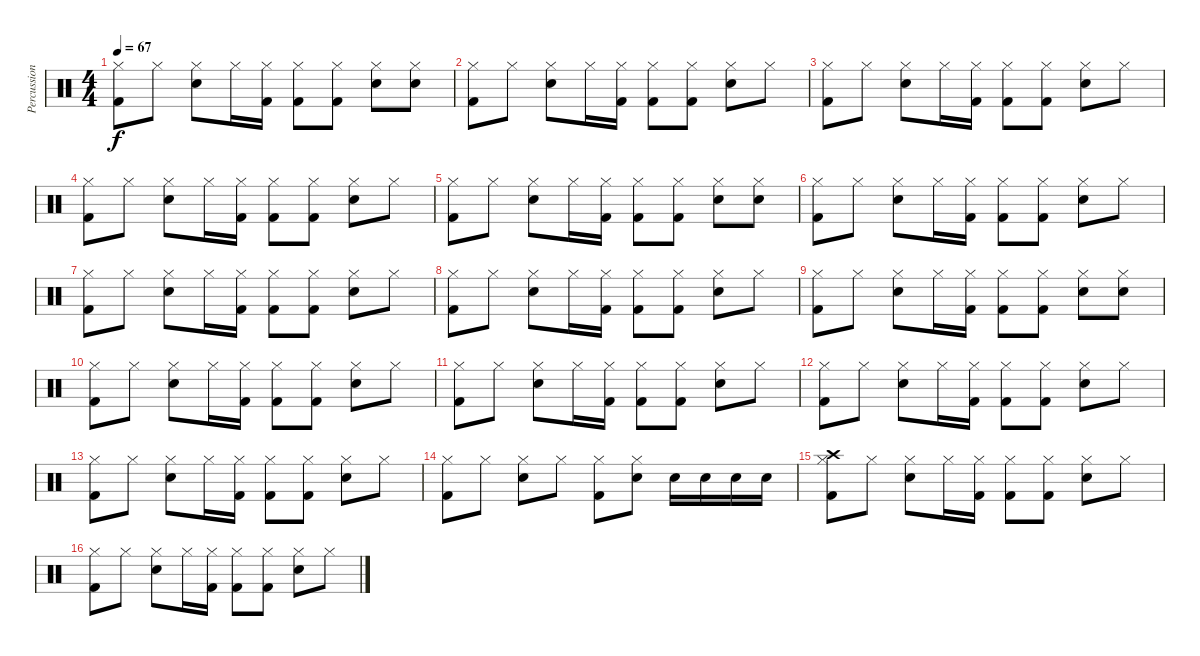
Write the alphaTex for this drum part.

\track ("Percussion" "Percussion") {instrument percussion}
\staff {score}
\articulation defaults
\ts (4 4)
\tempo 67
\clef neutral
\ks c
("Hi-Hat (closed)" "Kick (hit) 2").8{dy f} "Hi-Hat (closed)".8 ("Hi-Hat (closed)" "Hand Clap (hit)").8 "Hi-Hat (closed)".16 ("Hi-Hat (closed)" "Kick (hit) 2").16 ("Hi-Hat (closed)" "Kick (hit) 2").8 ("Hi-Hat (closed)" "Kick (hit) 2").8 ("Hi-Hat (closed)" "Hand Clap (hit)").8 ("Hi-Hat (closed)" "Hand Clap (hit)").8 |
("Hi-Hat (closed)" "Kick (hit) 2").8 "Hi-Hat (closed)".8 ("Hi-Hat (closed)" "Hand Clap (hit)").8 "Hi-Hat (closed)".16 ("Hi-Hat (closed)" "Kick (hit) 2").16 ("Hi-Hat (closed)" "Kick (hit) 2").8 ("Hi-Hat (closed)" "Kick (hit) 2").8 ("Hi-Hat (closed)" "Hand Clap (hit)").8 "Hi-Hat (closed)".8 |
("Hi-Hat (closed)" "Kick (hit) 2").8 "Hi-Hat (closed)".8 ("Hi-Hat (closed)" "Hand Clap (hit)").8 "Hi-Hat (closed)".16 ("Hi-Hat (closed)" "Kick (hit) 2").16 ("Hi-Hat (closed)" "Kick (hit) 2").8 ("Hi-Hat (closed)" "Kick (hit) 2").8 ("Hi-Hat (closed)" "Hand Clap (hit)").8 "Hi-Hat (closed)".8 |
("Hi-Hat (closed)" "Kick (hit) 2").8 "Hi-Hat (closed)".8 ("Hi-Hat (closed)" "Hand Clap (hit)").8 "Hi-Hat (closed)".16 ("Hi-Hat (closed)" "Kick (hit) 2").16 ("Hi-Hat (closed)" "Kick (hit) 2").8 ("Hi-Hat (closed)" "Kick (hit) 2").8 ("Hi-Hat (closed)" "Hand Clap (hit)").8 "Hi-Hat (closed)".8 |
("Hi-Hat (closed)" "Kick (hit) 2").8 "Hi-Hat (closed)".8 ("Hi-Hat (closed)" "Hand Clap (hit)").8 "Hi-Hat (closed)".16 ("Hi-Hat (closed)" "Kick (hit) 2").16 ("Hi-Hat (closed)" "Kick (hit) 2").8 ("Hi-Hat (closed)" "Kick (hit) 2").8 ("Hi-Hat (closed)" "Hand Clap (hit)").8 ("Hi-Hat (closed)" "Hand Clap (hit)").8 |
("Hi-Hat (closed)" "Kick (hit) 2").8 "Hi-Hat (closed)".8 ("Hi-Hat (closed)" "Hand Clap (hit)").8 "Hi-Hat (closed)".16 ("Hi-Hat (closed)" "Kick (hit) 2").16 ("Hi-Hat (closed)" "Kick (hit) 2").8 ("Hi-Hat (closed)" "Kick (hit) 2").8 ("Hi-Hat (closed)" "Hand Clap (hit)").8 "Hi-Hat (closed)".8 |
("Hi-Hat (closed)" "Kick (hit) 2").8 "Hi-Hat (closed)".8 ("Hi-Hat (closed)" "Hand Clap (hit)").8 "Hi-Hat (closed)".16 ("Hi-Hat (closed)" "Kick (hit) 2").16 ("Hi-Hat (closed)" "Kick (hit) 2").8 ("Hi-Hat (closed)" "Kick (hit) 2").8 ("Hi-Hat (closed)" "Hand Clap (hit)").8 "Hi-Hat (closed)".8 |
("Hi-Hat (closed)" "Kick (hit) 2").8 "Hi-Hat (closed)".8 ("Hi-Hat (closed)" "Hand Clap (hit)").8 "Hi-Hat (closed)".16 ("Hi-Hat (closed)" "Kick (hit) 2").16 ("Hi-Hat (closed)" "Kick (hit) 2").8 ("Hi-Hat (closed)" "Kick (hit) 2").8 ("Hi-Hat (closed)" "Hand Clap (hit)").8 "Hi-Hat (closed)".8 |
("Hi-Hat (closed)" "Kick (hit) 2").8 "Hi-Hat (closed)".8 ("Hi-Hat (closed)" "Hand Clap (hit)").8 "Hi-Hat (closed)".16 ("Hi-Hat (closed)" "Kick (hit) 2").16 ("Hi-Hat (closed)" "Kick (hit) 2").8 ("Hi-Hat (closed)" "Kick (hit) 2").8 ("Hi-Hat (closed)" "Hand Clap (hit)").8 ("Hi-Hat (closed)" "Hand Clap (hit)").8 |
("Hi-Hat (closed)" "Kick (hit) 2").8 "Hi-Hat (closed)".8 ("Hi-Hat (closed)" "Hand Clap (hit)").8 "Hi-Hat (closed)".16 ("Hi-Hat (closed)" "Kick (hit) 2").16 ("Hi-Hat (closed)" "Kick (hit) 2").8 ("Hi-Hat (closed)" "Kick (hit) 2").8 ("Hi-Hat (closed)" "Hand Clap (hit)").8 "Hi-Hat (closed)".8 |
("Hi-Hat (closed)" "Kick (hit) 2").8 "Hi-Hat (closed)".8 ("Hi-Hat (closed)" "Hand Clap (hit)").8 "Hi-Hat (closed)".16 ("Hi-Hat (closed)" "Kick (hit) 2").16 ("Hi-Hat (closed)" "Kick (hit) 2").8 ("Hi-Hat (closed)" "Kick (hit) 2").8 ("Hi-Hat (closed)" "Hand Clap (hit)").8 "Hi-Hat (closed)".8 |
("Hi-Hat (closed)" "Kick (hit) 2").8 "Hi-Hat (closed)".8 ("Hi-Hat (closed)" "Hand Clap (hit)").8 "Hi-Hat (closed)".16 ("Hi-Hat (closed)" "Kick (hit) 2").16 ("Hi-Hat (closed)" "Kick (hit) 2").8 ("Hi-Hat (closed)" "Kick (hit) 2").8 ("Hi-Hat (closed)" "Hand Clap (hit)").8 "Hi-Hat (closed)".8 |
("Hi-Hat (closed)" "Kick (hit) 2").8 "Hi-Hat (closed)".8 ("Hi-Hat (closed)" "Hand Clap (hit)").8 "Hi-Hat (closed)".16 ("Hi-Hat (closed)" "Kick (hit) 2").16 ("Hi-Hat (closed)" "Kick (hit) 2").8 ("Hi-Hat (closed)" "Kick (hit) 2").8 ("Hi-Hat (closed)" "Hand Clap (hit)").8 "Hi-Hat (closed)".8 |
("Hi-Hat (closed)" "Kick (hit) 2").8 "Hi-Hat (closed)".8 ("Hand Clap (hit)" "Hi-Hat (closed)").8 "Hi-Hat (closed)".8 ("Hi-Hat (closed)" "Kick (hit) 2").8 ("Hi-Hat (closed)" "Snare (hit) 2").8 "Snare (hit) 2".16 "Snare (hit) 2".16 "Snare (hit) 2".16 "Snare (hit) 2".16 |
("Hi-Hat (closed)" "Crash high (hit)" "Kick (hit) 2").8 "Hi-Hat (closed)".8 ("Hi-Hat (closed)" "Snare (hit) 2").8 "Hi-Hat (closed)".16 ("Hi-Hat (closed)" "Kick (hit) 2").16 ("Hi-Hat (closed)" "Kick (hit) 2").8 ("Hi-Hat (closed)" "Kick (hit) 2").8 ("Hi-Hat (closed)" "Snare (hit) 2").8 "Hi-Hat (closed)".8 |
("Hi-Hat (closed)" "Kick (hit) 2").8 "Hi-Hat (closed)".8 ("Hi-Hat (closed)" "Snare (hit) 2").8 "Hi-Hat (closed)".16 ("Hi-Hat (closed)" "Kick (hit) 2").16 ("Hi-Hat (closed)" "Kick (hit) 2").8 ("Hi-Hat (closed)" "Kick (hit) 2").8 ("Hi-Hat (closed)" "Snare (hit) 2").8 "Hi-Hat (closed)".8
